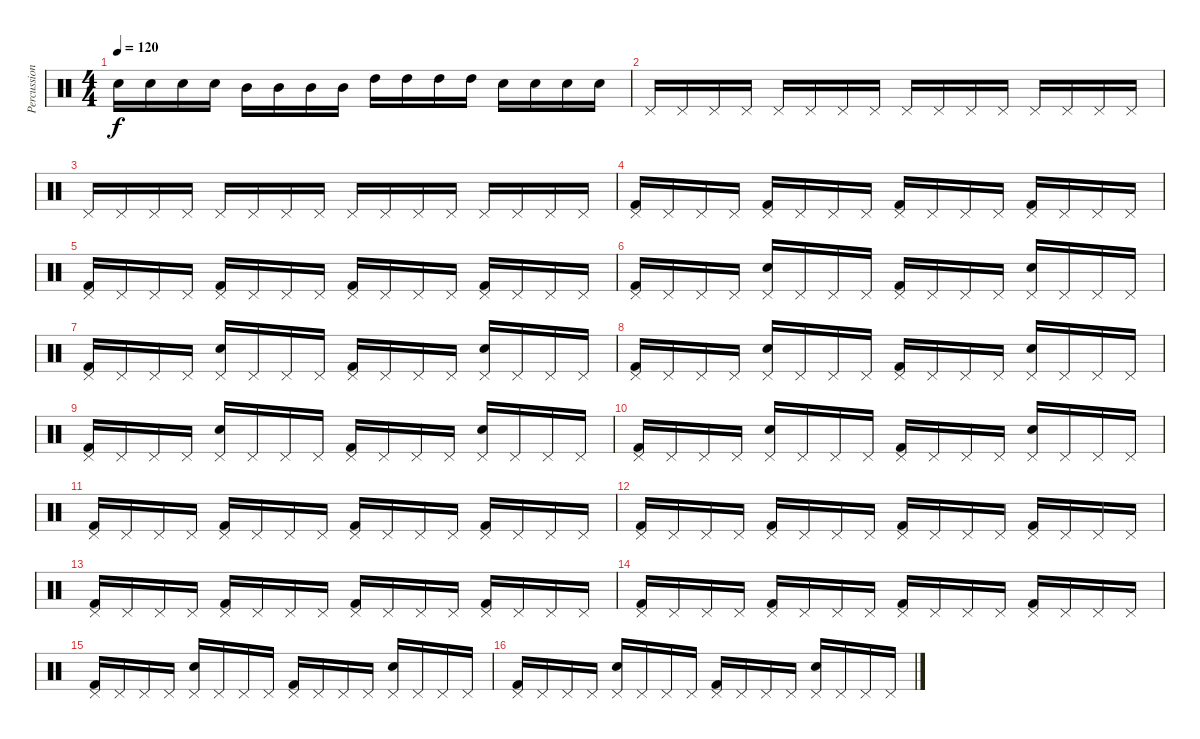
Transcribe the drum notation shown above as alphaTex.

\track ("Percussion" "Percussion") {instrument percussion}
\staff {score}
\articulation defaults
\ts (4 4)
\tempo 120
\clef neutral
\ks c "Snare (hit) 2".16{dy f} "Snare (hit) 2".16 "Snare (hit) 2".16 "Snare (hit) 2".16 "Mid Tom (hit)".16 "Mid Tom (hit)".16 "Mid Tom (hit)".16 "Mid Tom (hit)".16 "High Tom (hit)".16 "High Tom (hit)".16 "High Tom (hit)".16 "High Tom (hit)".16 "Snare (hit) 2".16 "Snare (hit) 2".16 "Snare (hit) 2".16 "Snare (hit) 2".16
|
"Pedal Hi-Hat (hit)".16 "Pedal Hi-Hat (hit)".16 "Pedal Hi-Hat (hit)".16 "Pedal Hi-Hat (hit)".16 "Pedal Hi-Hat (hit)".16 "Pedal Hi-Hat (hit)".16 "Pedal Hi-Hat (hit)".16 "Pedal Hi-Hat (hit)".16 "Pedal Hi-Hat (hit)".16 "Pedal Hi-Hat (hit)".16 "Pedal Hi-Hat (hit)".16 "Pedal Hi-Hat (hit)".16 "Pedal Hi-Hat (hit)".16 "Pedal Hi-Hat (hit)".16 "Pedal Hi-Hat (hit)".16 "Pedal Hi-Hat (hit)".16 |
"Pedal Hi-Hat (hit)".16 "Pedal Hi-Hat (hit)".16 "Pedal Hi-Hat (hit)".16 "Pedal Hi-Hat (hit)".16 "Pedal Hi-Hat (hit)".16 "Pedal Hi-Hat (hit)".16 "Pedal Hi-Hat (hit)".16 "Pedal Hi-Hat (hit)".16 "Pedal Hi-Hat (hit)".16 "Pedal Hi-Hat (hit)".16 "Pedal Hi-Hat (hit)".16 "Pedal Hi-Hat (hit)".16 "Pedal Hi-Hat (hit)".16 "Pedal Hi-Hat (hit)".16 "Pedal Hi-Hat (hit)".16 "Pedal Hi-Hat (hit)".16 |
("Pedal Hi-Hat (hit)" "Kick (hit) 2").16 "Pedal Hi-Hat (hit)".16 "Pedal Hi-Hat (hit)".16 "Pedal Hi-Hat (hit)".16 ("Pedal Hi-Hat (hit)" "Kick (hit) 2").16 "Pedal Hi-Hat (hit)".16 "Pedal Hi-Hat (hit)".16 "Pedal Hi-Hat (hit)".16 ("Pedal Hi-Hat (hit)" "Kick (hit) 2").16 "Pedal Hi-Hat (hit)".16 "Pedal Hi-Hat (hit)".16 "Pedal Hi-Hat (hit)".16 ("Pedal Hi-Hat (hit)" "Kick (hit) 2").16 "Pedal Hi-Hat (hit)".16 "Pedal Hi-Hat (hit)".16 "Pedal Hi-Hat (hit)".16 |
("Pedal Hi-Hat (hit)" "Kick (hit) 2").16 "Pedal Hi-Hat (hit)".16 "Pedal Hi-Hat (hit)".16 "Pedal Hi-Hat (hit)".16 ("Pedal Hi-Hat (hit)" "Kick (hit) 2").16 "Pedal Hi-Hat (hit)".16 "Pedal Hi-Hat (hit)".16 "Pedal Hi-Hat (hit)".16 ("Pedal Hi-Hat (hit)" "Kick (hit) 2").16 "Pedal Hi-Hat (hit)".16 "Pedal Hi-Hat (hit)".16 "Pedal Hi-Hat (hit)".16 ("Pedal Hi-Hat (hit)" "Kick (hit) 2").16 "Pedal Hi-Hat (hit)".16 "Pedal Hi-Hat (hit)".16 "Pedal Hi-Hat (hit)".16 |
("Pedal Hi-Hat (hit)" "Kick (hit) 2").16 "Pedal Hi-Hat (hit)".16 "Pedal Hi-Hat (hit)".16 "Pedal Hi-Hat (hit)".16 ("Pedal Hi-Hat (hit)" "Electric Snare (hit)").16 "Pedal Hi-Hat (hit)".16 "Pedal Hi-Hat (hit)".16 "Pedal Hi-Hat (hit)".16 ("Pedal Hi-Hat (hit)" "Kick (hit) 2").16 "Pedal Hi-Hat (hit)".16 "Pedal Hi-Hat (hit)".16 "Pedal Hi-Hat (hit)".16 ("Pedal Hi-Hat (hit)" "Electric Snare (hit)").16 "Pedal Hi-Hat (hit)".16 "Pedal Hi-Hat (hit)".16 "Pedal Hi-Hat (hit)".16 |
("Pedal Hi-Hat (hit)" "Kick (hit) 2").16 "Pedal Hi-Hat (hit)".16 "Pedal Hi-Hat (hit)".16 "Pedal Hi-Hat (hit)".16 ("Pedal Hi-Hat (hit)" "Electric Snare (hit)").16 "Pedal Hi-Hat (hit)".16 "Pedal Hi-Hat (hit)".16 "Pedal Hi-Hat (hit)".16 ("Pedal Hi-Hat (hit)" "Kick (hit) 2").16 "Pedal Hi-Hat (hit)".16 "Pedal Hi-Hat (hit)".16 "Pedal Hi-Hat (hit)".16 ("Pedal Hi-Hat (hit)" "Electric Snare (hit)").16 "Pedal Hi-Hat (hit)".16 "Pedal Hi-Hat (hit)".16 "Pedal Hi-Hat (hit)".16 |
("Pedal Hi-Hat (hit)" "Kick (hit) 2").16 "Pedal Hi-Hat (hit)".16 "Pedal Hi-Hat (hit)".16 "Pedal Hi-Hat (hit)".16 ("Pedal Hi-Hat (hit)" "Electric Snare (hit)").16 "Pedal Hi-Hat (hit)".16 "Pedal Hi-Hat (hit)".16 "Pedal Hi-Hat (hit)".16 ("Pedal Hi-Hat (hit)" "Kick (hit) 2").16 "Pedal Hi-Hat (hit)".16 "Pedal Hi-Hat (hit)".16 "Pedal Hi-Hat (hit)".16 ("Pedal Hi-Hat (hit)" "Electric Snare (hit)").16 "Pedal Hi-Hat (hit)".16 "Pedal Hi-Hat (hit)".16 "Pedal Hi-Hat (hit)".16 |
("Pedal Hi-Hat (hit)" "Kick (hit) 2").16 "Pedal Hi-Hat (hit)".16 "Pedal Hi-Hat (hit)".16 "Pedal Hi-Hat (hit)".16 ("Pedal Hi-Hat (hit)" "Electric Snare (hit)").16 "Pedal Hi-Hat (hit)".16 "Pedal Hi-Hat (hit)".16 "Pedal Hi-Hat (hit)".16 ("Pedal Hi-Hat (hit)" "Kick (hit) 2").16 "Pedal Hi-Hat (hit)".16 "Pedal Hi-Hat (hit)".16 "Pedal Hi-Hat (hit)".16 ("Pedal Hi-Hat (hit)" "Electric Snare (hit)").16 "Pedal Hi-Hat (hit)".16 "Pedal Hi-Hat (hit)".16 "Pedal Hi-Hat (hit)".16 |
("Pedal Hi-Hat (hit)" "Kick (hit) 2").16 "Pedal Hi-Hat (hit)".16 "Pedal Hi-Hat (hit)".16 "Pedal Hi-Hat (hit)".16 ("Pedal Hi-Hat (hit)" "Electric Snare (hit)").16 "Pedal Hi-Hat (hit)".16 "Pedal Hi-Hat (hit)".16 "Pedal Hi-Hat (hit)".16 ("Pedal Hi-Hat (hit)" "Kick (hit) 2").16 "Pedal Hi-Hat (hit)".16 "Pedal Hi-Hat (hit)".16 "Pedal Hi-Hat (hit)".16 ("Pedal Hi-Hat (hit)" "Electric Snare (hit)").16 "Pedal Hi-Hat (hit)".16 "Pedal Hi-Hat (hit)".16 "Pedal Hi-Hat (hit)".16 |
("Pedal Hi-Hat (hit)" "Kick (hit) 2").16 "Pedal Hi-Hat (hit)".16 "Pedal Hi-Hat (hit)".16 "Pedal Hi-Hat (hit)".16 ("Pedal Hi-Hat (hit)" "Kick (hit) 2").16 "Pedal Hi-Hat (hit)".16 "Pedal Hi-Hat (hit)".16 "Pedal Hi-Hat (hit)".16 ("Pedal Hi-Hat (hit)" "Kick (hit) 2").16 "Pedal Hi-Hat (hit)".16 "Pedal Hi-Hat (hit)".16 "Pedal Hi-Hat (hit)".16 ("Pedal Hi-Hat (hit)" "Kick (hit) 2").16 "Pedal Hi-Hat (hit)".16 "Pedal Hi-Hat (hit)".16 "Pedal Hi-Hat (hit)".16 |
("Pedal Hi-Hat (hit)" "Kick (hit) 2").16 "Pedal Hi-Hat (hit)".16 "Pedal Hi-Hat (hit)".16 "Pedal Hi-Hat (hit)".16 ("Pedal Hi-Hat (hit)" "Kick (hit) 2").16 "Pedal Hi-Hat (hit)".16 "Pedal Hi-Hat (hit)".16 "Pedal Hi-Hat (hit)".16 ("Pedal Hi-Hat (hit)" "Kick (hit) 2").16 "Pedal Hi-Hat (hit)".16 "Pedal Hi-Hat (hit)".16 "Pedal Hi-Hat (hit)".16 ("Pedal Hi-Hat (hit)" "Kick (hit) 2").16 "Pedal Hi-Hat (hit)".16 "Pedal Hi-Hat (hit)".16 "Pedal Hi-Hat (hit)".16 |
("Pedal Hi-Hat (hit)" "Kick (hit) 2").16 "Pedal Hi-Hat (hit)".16 "Pedal Hi-Hat (hit)".16 "Pedal Hi-Hat (hit)".16 ("Pedal Hi-Hat (hit)" "Kick (hit) 2").16 "Pedal Hi-Hat (hit)".16 "Pedal Hi-Hat (hit)".16 "Pedal Hi-Hat (hit)".16 ("Pedal Hi-Hat (hit)" "Kick (hit) 2").16 "Pedal Hi-Hat (hit)".16 "Pedal Hi-Hat (hit)".16 "Pedal Hi-Hat (hit)".16 ("Pedal Hi-Hat (hit)" "Kick (hit) 2").16 "Pedal Hi-Hat (hit)".16 "Pedal Hi-Hat (hit)".16 "Pedal Hi-Hat (hit)".16 |
("Pedal Hi-Hat (hit)" "Kick (hit) 2").16 "Pedal Hi-Hat (hit)".16 "Pedal Hi-Hat (hit)".16 "Pedal Hi-Hat (hit)".16 ("Pedal Hi-Hat (hit)" "Kick (hit) 2").16 "Pedal Hi-Hat (hit)".16 "Pedal Hi-Hat (hit)".16 "Pedal Hi-Hat (hit)".16 ("Pedal Hi-Hat (hit)" "Kick (hit) 2").16 "Pedal Hi-Hat (hit)".16 "Pedal Hi-Hat (hit)".16 "Pedal Hi-Hat (hit)".16 ("Pedal Hi-Hat (hit)" "Kick (hit) 2").16 "Pedal Hi-Hat (hit)".16 "Pedal Hi-Hat (hit)".16 "Pedal Hi-Hat (hit)".16 |
("Pedal Hi-Hat (hit)" "Kick (hit) 2").16 "Pedal Hi-Hat (hit)".16 "Pedal Hi-Hat (hit)".16 "Pedal Hi-Hat (hit)".16 ("Pedal Hi-Hat (hit)" "Electric Snare (hit)").16 "Pedal Hi-Hat (hit)".16 "Pedal Hi-Hat (hit)".16 "Pedal Hi-Hat (hit)".16 ("Pedal Hi-Hat (hit)" "Kick (hit) 2").16 "Pedal Hi-Hat (hit)".16 "Pedal Hi-Hat (hit)".16 "Pedal Hi-Hat (hit)".16 ("Pedal Hi-Hat (hit)" "Electric Snare (hit)").16 "Pedal Hi-Hat (hit)".16 "Pedal Hi-Hat (hit)".16 "Pedal Hi-Hat (hit)".16 |
("Pedal Hi-Hat (hit)" "Kick (hit) 2").16 "Pedal Hi-Hat (hit)".16 "Pedal Hi-Hat (hit)".16 "Pedal Hi-Hat (hit)".16 ("Pedal Hi-Hat (hit)" "Electric Snare (hit)").16 "Pedal Hi-Hat (hit)".16 "Pedal Hi-Hat (hit)".16 "Pedal Hi-Hat (hit)".16 ("Pedal Hi-Hat (hit)" "Kick (hit) 2").16 "Pedal Hi-Hat (hit)".16 "Pedal Hi-Hat (hit)".16 "Pedal Hi-Hat (hit)".16 ("Pedal Hi-Hat (hit)" "Electric Snare (hit)").16 "Pedal Hi-Hat (hit)".16 "Pedal Hi-Hat (hit)".16 "Pedal Hi-Hat (hit)".16
